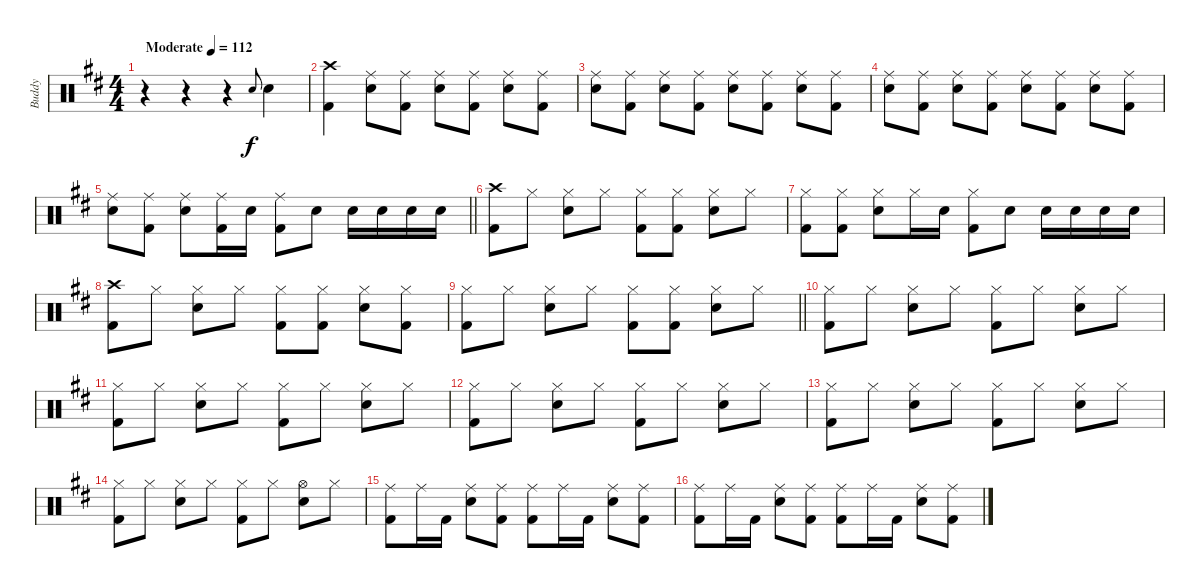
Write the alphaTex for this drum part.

\track ("Buddy " "Buddy ") {instrument percussion}
\staff {score}
\articulation defaults
\ts (4 4)
\tempo (112 "Moderate")
\clef neutral
\ks d
r.4{dy f} r.4 r.4 "Snare (hit) 2".8{gr onbeat} "Snare (hit) 2".4 |
("Crash high (hit)" "Kick (hit) 2").4 ("Ride (middle)" "Snare (hit) 2").8 ("Ride (middle)" "Kick (hit) 2").8 ("Ride (middle)" "Snare (hit) 2").8 ("Ride (middle)" "Kick (hit) 2").8 ("Ride (middle)" "Snare (hit) 2").8 ("Ride (middle)" "Kick (hit) 2").8 |
("Ride (middle)" "Snare (hit) 2").8 ("Ride (middle)" "Kick (hit) 2").8 ("Ride (middle)" "Snare (hit) 2").8 ("Ride (middle)" "Kick (hit) 2").8 ("Ride (middle)" "Snare (hit) 2").8 ("Ride (middle)" "Kick (hit) 2").8 ("Ride (middle)" "Snare (hit) 2").8 ("Ride (middle)" "Kick (hit) 2").8 |
("Ride (middle)" "Snare (hit) 2").8 ("Ride (middle)" "Kick (hit) 2").8 ("Ride (middle)" "Snare (hit) 2").8 ("Ride (middle)" "Kick (hit) 2").8 ("Ride (middle)" "Snare (hit) 2").8 ("Ride (middle)" "Kick (hit) 2").8 ("Ride (middle)" "Snare (hit) 2").8 ("Ride (middle)" "Kick (hit) 2").8 |
\barLineRight lightlight
("Ride (middle)" "Snare (hit) 2").8 ("Ride (middle)" "Kick (hit) 2").8 ("Ride (middle)" "Snare (hit) 2").8 ("Ride (middle)" "Kick (hit) 2").16 "Snare (hit) 2".16 ("Ride (middle)" "Kick (hit) 2").8 "Snare (hit) 2".8 "Snare (hit) 2".16 "Snare (hit) 2".16 "Snare (hit) 2".16 "Snare (hit) 2".16 |
("Crash high (hit)" "Kick (hit) 2").8 "Hi-Hat (closed)".8 ("Hi-Hat (closed)" "Snare (hit) 2").8 "Hi-Hat (closed)".8 ("Hi-Hat (closed)" "Kick (hit) 2").8 ("Hi-Hat (closed)" "Kick (hit) 2").8 ("Hi-Hat (closed)" "Snare (hit) 2").8 "Hi-Hat (closed)".8 |
("Hi-Hat (closed)" "Kick (hit) 2").8 ("Hi-Hat (closed)" "Kick (hit) 2").8 ("Hi-Hat (closed)" "Snare (hit) 2").8 "Hi-Hat (closed)".16 "Snare (hit) 2".16 ("Hi-Hat (closed)" "Kick (hit) 2").8 "Snare (hit) 2".8 "Snare (hit) 2".16 "Snare (hit) 2".16 "Snare (hit) 2".16 "Snare (hit) 2".16 |
("Crash high (hit)" "Kick (hit) 2").8 "Hi-Hat (closed)".8 ("Hi-Hat (closed)" "Snare (hit) 2").8 "Hi-Hat (closed)".8 ("Hi-Hat (closed)" "Kick (hit) 2").8 ("Hi-Hat (closed)" "Kick (hit) 2").8 ("Hi-Hat (closed)" "Snare (hit) 2").8 ("Hi-Hat (closed)" "Kick (hit) 2").8 |
\barLineRight lightlight
("Hi-Hat (closed)" "Kick (hit) 2").8 "Hi-Hat (closed)".8 ("Hi-Hat (closed)" "Snare (hit) 2").8 "Hi-Hat (closed)".8 ("Hi-Hat (closed)" "Kick (hit) 2").8 ("Hi-Hat (closed)" "Kick (hit) 2").8 ("Hi-Hat (closed)" "Snare (hit) 2").8 "Hi-Hat (closed)".8 |
("Hi-Hat (closed)" "Kick (hit) 2").8 "Hi-Hat (closed)".8 ("Hi-Hat (closed)" "Snare (hit) 2").8 "Hi-Hat (closed)".8 ("Hi-Hat (closed)" "Kick (hit) 2").8 "Hi-Hat (closed)".8 ("Hi-Hat (closed)" "Snare (hit) 2").8 "Hi-Hat (closed)".8 |
("Hi-Hat (closed)" "Kick (hit) 2").8 "Hi-Hat (closed)".8 ("Hi-Hat (closed)" "Snare (hit) 2").8 "Hi-Hat (closed)".8 ("Hi-Hat (closed)" "Kick (hit) 2").8 "Hi-Hat (closed)".8 ("Hi-Hat (closed)" "Snare (hit) 2").8 "Hi-Hat (closed)".8 |
("Hi-Hat (closed)" "Kick (hit) 2").8 "Hi-Hat (closed)".8 ("Hi-Hat (closed)" "Snare (hit) 2").8 "Hi-Hat (closed)".8 ("Hi-Hat (closed)" "Kick (hit) 2").8 "Hi-Hat (closed)".8 ("Hi-Hat (closed)" "Snare (hit) 2").8 "Hi-Hat (closed)".8 |
("Hi-Hat (closed)" "Kick (hit) 2").8 "Hi-Hat (closed)".8 ("Hi-Hat (closed)" "Snare (hit) 2").8 "Hi-Hat (closed)".8 ("Hi-Hat (closed)" "Kick (hit) 2").8 "Hi-Hat (closed)".8 ("Hi-Hat (closed)" "Snare (hit) 2").8 "Hi-Hat (closed)".8 |
("Hi-Hat (closed)" "Kick (hit) 2").8 "Hi-Hat (closed)".8 ("Hi-Hat (closed)" "Snare (hit) 2").8 "Hi-Hat (closed)".8 ("Hi-Hat (closed)" "Kick (hit) 2").8 "Hi-Hat (closed)".8 ("Hi-Hat (open)" "Snare (hit) 2").8 "Hi-Hat (closed)".8 |
("Ride (middle)" "Kick (hit) 2").8 "Ride (middle)".16 "Kick (hit) 2".16 ("Ride (middle)" "Snare (hit) 2").8 ("Ride (middle)" "Kick (hit) 2").8 ("Ride (middle)" "Kick (hit) 2").8 "Ride (middle)".16 "Kick (hit) 2".16 ("Ride (middle)" "Snare (hit) 2").8 ("Ride (middle)" "Kick (hit) 2").8 |
("Ride (middle)" "Kick (hit) 2").8 "Ride (middle)".16 "Kick (hit) 2".16 ("Ride (middle)" "Snare (hit) 2").8 ("Ride (middle)" "Kick (hit) 2").8 ("Ride (middle)" "Kick (hit) 2").8 "Ride (middle)".16 "Kick (hit) 2".16 ("Ride (middle)" "Snare (hit) 2").8 ("Ride (middle)" "Kick (hit) 2").8
